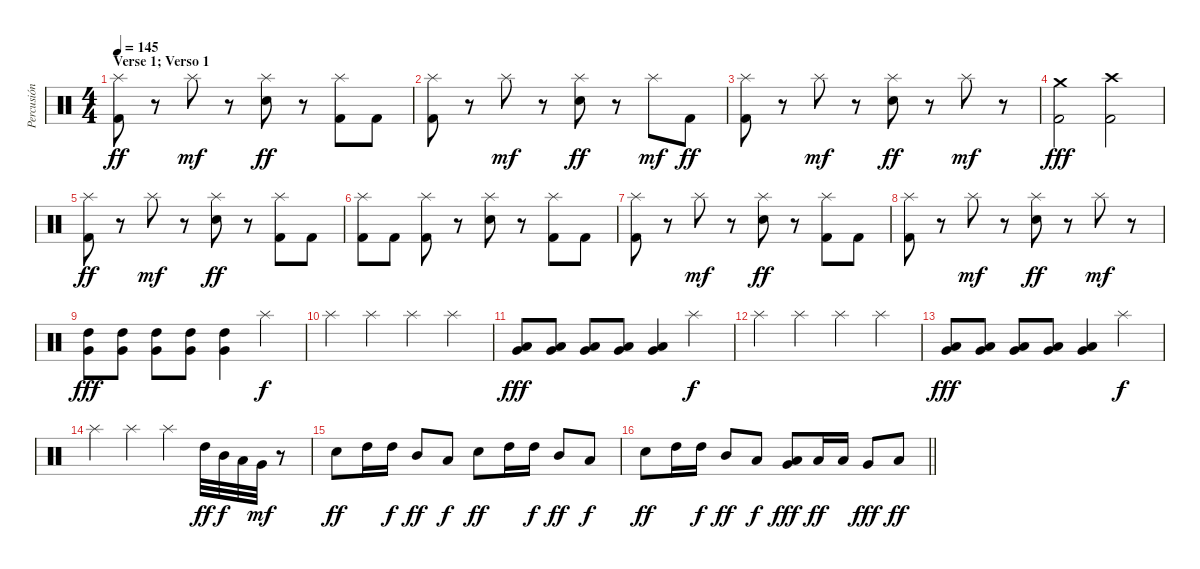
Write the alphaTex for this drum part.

\track ("Percusión" "Percusión") {instrument percussion}
\staff {score}
\articulation defaults
\ts (4 4)
\section ("" "Verse 1; Verso 1")
\tempo 145
\clef neutral
\ks c
("Splash (hit)" "Kick (hit) 2").8{dy ff} r.8 "Splash (hit)".8{dy mf} r.8 ("Splash (hit)" "Electric Snare (hit)").8{dy ff} r.8 ("Splash (hit)" "Kick (hit) 2").8 "Kick (hit) 2".8 |
("Splash (hit)" "Kick (hit) 2").8 r.8 "Splash (hit)".8{dy mf} r.8 ("Splash (hit)" "Electric Snare (hit)").8{dy ff} r.8 "Splash (hit)".8{dy mf} "Kick (hit) 2".8{dy ff} |
("Splash (hit)" "Kick (hit) 2").8 r.8 "Splash (hit)".8{dy mf} r.8 ("Splash (hit)" "Electric Snare (hit)").8{dy ff} r.8 "Splash (hit)".8{dy mf} r.8 |
("Crash medium (hit)" "Kick (hit) 2").2{dy fff} ("Crash high (hit)" "Kick (hit) 2").2 |
("Splash (hit)" "Kick (hit) 2").8{dy ff} r.8 "Splash (hit)".8{dy mf} r.8 ("Splash (hit)" "Electric Snare (hit)").8{dy ff} r.8 ("Splash (hit)" "Kick (hit) 2").8 "Kick (hit) 2".8 |
("Splash (hit)" "Kick (hit) 2").8 "Kick (hit) 2".8 ("Splash (hit)" "Kick (hit) 2").8 r.8 ("Splash (hit)" "Electric Snare (hit)").8 r.8 ("Splash (hit)" "Kick (hit) 2").8 "Kick (hit) 2".8 |
("Splash (hit)" "Kick (hit) 2").8 r.8 "Splash (hit)".8{dy mf} r.8 ("Splash (hit)" "Electric Snare (hit)").8{dy ff} r.8 ("Splash (hit)" "Kick (hit) 2").8 "Kick (hit) 2".8 |
("Splash (hit)" "Kick (hit) 2").8 r.8 "Splash (hit)".8{dy mf} r.8 ("Splash (hit)" "Electric Snare (hit)").8{dy ff} r.8 "Splash (hit)".8{dy mf} r.8 |
("High Tom (hit)" "Very Low Tom (hit)").8{dy fff} ("High Tom (hit)" "Very Low Tom (hit)").8 ("High Tom (hit)" "Very Low Tom (hit)").8 ("High Tom (hit)" "Very Low Tom (hit)").8 ("High Tom (hit)" "Very Low Tom (hit)").4 "Splash (hit)".4{dy f} |
"Splash (hit)".4 "Splash (hit)".4 "Splash (hit)".4 "Splash (hit)".4 |
("Low Floor Tom (hit)" "Very Low Tom (hit)").8{dy fff} ("Low Floor Tom (hit)" "Very Low Tom (hit)").8 ("Low Floor Tom (hit)" "Very Low Tom (hit)").8 ("Low Floor Tom (hit)" "Very Low Tom (hit)").8 ("Low Floor Tom (hit)" "Very Low Tom (hit)").4 "Splash (hit)".4{dy f} |
"Splash (hit)".4 "Splash (hit)".4 "Splash (hit)".4 "Splash (hit)".4 |
("Low Tom (hit)" "Very Low Tom (hit)").8{dy fff} ("Low Tom (hit)" "Very Low Tom (hit)").8 ("Low Tom (hit)" "Very Low Tom (hit)").8 ("Low Tom (hit)" "Very Low Tom (hit)").8 ("Low Tom (hit)" "Very Low Tom (hit)").4 "Splash (hit)".4{dy f} |
"Splash (hit)".4 "Splash (hit)".4 "Splash (hit)".4 "High Tom (hit)".32{dy ff} "Mid Tom (hit)".32{dy f} "Low Tom (hit)".32 "Very Low Tom (hit)".32{dy mf} r.8 |
"Electric Snare (hit)".8{dy ff} "High Tom (hit)".16 "High Tom (hit)".16{dy f} "Mid Tom (hit)".8{dy ff} "Low Tom (hit)".8{dy f} "Electric Snare (hit)".8{dy ff} "High Tom (hit)".16 "High Tom (hit)".16{dy f} "Mid Tom (hit)".8{dy ff} "Low Tom (hit)".8{dy f} |
\barLineRight lightlight "Electric Snare (hit)".8{dy ff} "High Tom (hit)".16 "High Tom (hit)".16{dy f} "Mid Tom (hit)".8{dy ff} "Low Tom (hit)".8{dy f}
("Very Low Tom (hit)" "Low Tom (hit)").8{dy fff} "Low Tom (hit)".16{dy ff} "Low Tom (hit)".16 "Very Low Tom (hit)".8{dy fff} "Low Floor Tom (hit)".8{dy ff}
